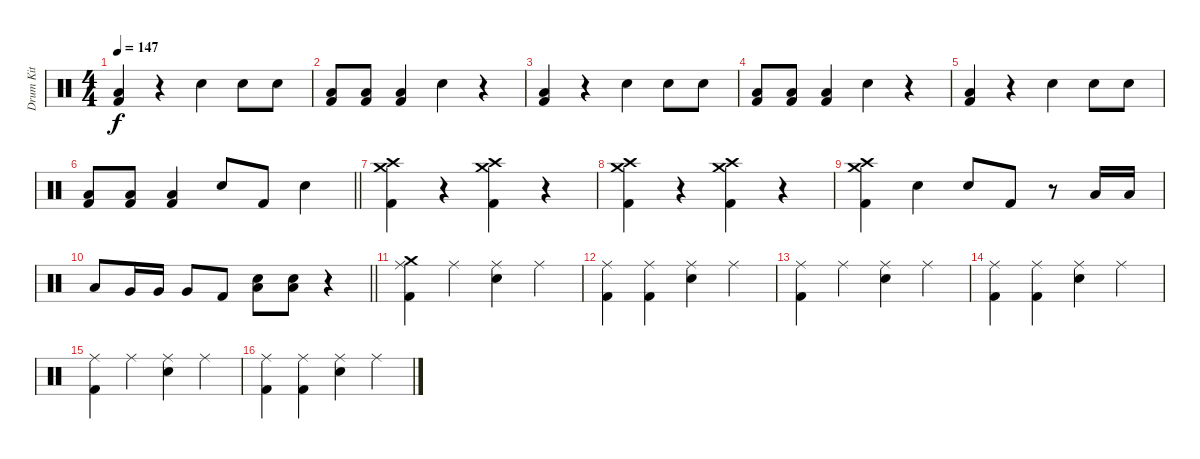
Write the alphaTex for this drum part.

\track ("Drum Kit" "Drum Kit") {instrument percussion}
\staff {score}
\articulation defaults
\ts (4 4)
\tempo 147
\clef neutral
\ks c
("Low Floor Tom (hit)" "Kick (hit) 2").4{dy f} r.4 "Snare (hit) 2".4 "Snare (hit) 2".8 "Snare (hit) 2".8 |
("Low Floor Tom (hit)" "Kick (hit) 2").8 ("Low Floor Tom (hit)" "Kick (hit) 2").8 ("Low Floor Tom (hit)" "Kick (hit) 2").4 "Snare (hit) 2".4 r.4 |
("Low Floor Tom (hit)" "Kick (hit) 2").4 r.4 "Snare (hit) 2".4 "Snare (hit) 2".8 "Snare (hit) 2".8 |
("Low Floor Tom (hit)" "Kick (hit) 2").8 ("Low Floor Tom (hit)" "Kick (hit) 2").8 ("Low Floor Tom (hit)" "Kick (hit) 2").4 "Snare (hit) 2".4 r.4 |
("Low Floor Tom (hit)" "Kick (hit) 2").4 r.4 "Snare (hit) 2".4 "Snare (hit) 2".8 "Snare (hit) 2".8 |
\barLineRight lightlight
("Low Floor Tom (hit)" "Kick (hit) 2").8 ("Low Floor Tom (hit)" "Kick (hit) 2").8 ("Low Floor Tom (hit)" "Kick (hit) 2").4 "Snare (hit) 2".8 "Kick (hit) 2".8 "Snare (hit) 2".4 |
("Crash medium (hit)" "Crash high (hit)" "Kick (hit) 2").4 r.4 ("Crash medium (hit)" "Crash high (hit)" "Kick (hit) 2").4 r.4 |
("Crash medium (hit)" "Crash high (hit)" "Kick (hit) 2").4 r.4 ("Crash medium (hit)" "Crash high (hit)" "Kick (hit) 2").4 r.4 |
("Crash medium (hit)" "Crash high (hit)" "Kick (hit) 2").4 "Snare (hit) 2".4 "Snare (hit) 2".8 "Kick (hit) 2".8 r.8 "Low Tom (hit)".16 "Low Tom (hit)".16 |
\barLineRight lightlight "Low Tom (hit)".8 "Very Low Tom (hit)".16 "Very Low Tom (hit)".16 "Very Low Tom (hit)".8 "Kick (hit) 2".8
("Low Floor Tom (hit)" "Snare (hit) 2").8 ("Low Floor Tom (hit)" "Snare (hit) 2").8 r.4 |
("Crash medium (hit)" "Ride (middle)" "Kick (hit) 2").4 "Ride (middle)".4 ("Ride (middle)" "Snare (hit) 2").4 "Ride (middle)".4 |
("Ride (middle)" "Kick (hit) 2").4 ("Ride (middle)" "Kick (hit) 2").4 ("Ride (middle)" "Snare (hit) 2").4 "Ride (middle)".4 |
("Ride (middle)" "Kick (hit) 2").4 "Ride (middle)".4 ("Ride (middle)" "Snare (hit) 2").4 "Ride (middle)".4 |
("Ride (middle)" "Kick (hit) 2").4 ("Ride (middle)" "Kick (hit) 2").4 ("Ride (middle)" "Snare (hit) 2").4 "Ride (middle)".4 |
("Ride (middle)" "Kick (hit) 2").4 "Ride (middle)".4 ("Ride (middle)" "Snare (hit) 2").4 "Ride (middle)".4 |
("Ride (middle)" "Kick (hit) 2").4 ("Ride (middle)" "Kick (hit) 2").4 ("Ride (middle)" "Snare (hit) 2").4 "Ride (middle)".4
